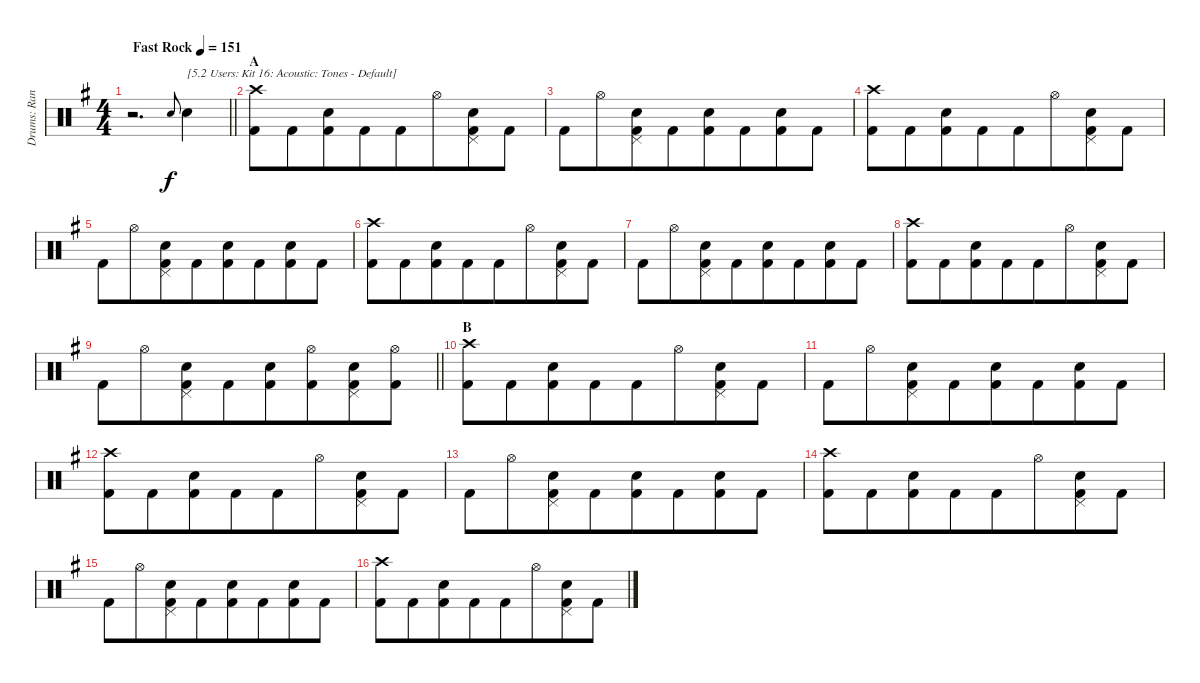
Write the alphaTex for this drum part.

\track ("Drums: Randy" "Drums: Ran") {instrument percussion}
\staff {score}
\articulation defaults
\ts (4 4)
\tempo (151 "Fast Rock")
\clef neutral
\barLineRight lightlight
\ks g
r.2{d dy f} "Electric Snare (hit)".8{gr onbeat} "Snare (hit) 2".4{txt "[5.2 Users: Kit 16: Acoustic: Tones - Default]"} |
\section ("" "A")
("Crash high (hit)" "Kick (hit) 2").8 "Kick (hit) 2".8{beam merge} ("Snare (hit) 2" "Kick (hit) 2").8 "Kick (hit) 2".8{beam merge} "Kick (hit) 2".8 "Hi-Hat (open)".8{beam merge} ("Pedal Hi-Hat (hit)" "Snare (hit) 2" "Kick (hit) 2").8 "Kick (hit) 2".8 |
"Kick (hit) 2".8 "Hi-Hat (open)".8{beam merge} ("Pedal Hi-Hat (hit)" "Snare (hit) 2" "Kick (hit) 2").8 "Kick (hit) 2".8{beam merge} ("Snare (hit) 2" "Kick (hit) 2").8 "Kick (hit) 2".8{beam merge} ("Snare (hit) 2" "Kick (hit) 2").8 "Kick (hit) 2".8 |
("Crash high (hit)" "Kick (hit) 2").8 "Kick (hit) 2".8{beam merge} ("Snare (hit) 2" "Kick (hit) 2").8 "Kick (hit) 2".8{beam merge} "Kick (hit) 2".8 "Hi-Hat (open)".8{beam merge} ("Pedal Hi-Hat (hit)" "Snare (hit) 2" "Kick (hit) 2").8 "Kick (hit) 2".8 |
"Kick (hit) 2".8 "Hi-Hat (open)".8{beam merge} ("Pedal Hi-Hat (hit)" "Snare (hit) 2" "Kick (hit) 2").8 "Kick (hit) 2".8{beam merge} ("Snare (hit) 2" "Kick (hit) 2").8 "Kick (hit) 2".8{beam merge} ("Snare (hit) 2" "Kick (hit) 2").8 "Kick (hit) 2".8 |
("Crash high (hit)" "Kick (hit) 2").8 "Kick (hit) 2".8{beam merge} ("Snare (hit) 2" "Kick (hit) 2").8 "Kick (hit) 2".8{beam merge} "Kick (hit) 2".8 "Hi-Hat (open)".8{beam merge} ("Pedal Hi-Hat (hit)" "Snare (hit) 2" "Kick (hit) 2").8 "Kick (hit) 2".8 |
"Kick (hit) 2".8 "Hi-Hat (open)".8{beam merge} ("Pedal Hi-Hat (hit)" "Snare (hit) 2" "Kick (hit) 2").8 "Kick (hit) 2".8{beam merge} ("Snare (hit) 2" "Kick (hit) 2").8 "Kick (hit) 2".8{beam merge} ("Snare (hit) 2" "Kick (hit) 2").8 "Kick (hit) 2".8 |
("Crash high (hit)" "Kick (hit) 2").8 "Kick (hit) 2".8{beam merge} ("Snare (hit) 2" "Kick (hit) 2").8 "Kick (hit) 2".8{beam merge} "Kick (hit) 2".8 "Hi-Hat (open)".8{beam merge} ("Pedal Hi-Hat (hit)" "Snare (hit) 2" "Kick (hit) 2").8 "Kick (hit) 2".8 |
\barLineRight lightlight "Kick (hit) 2".8 "Hi-Hat (open)".8{beam merge}
("Pedal Hi-Hat (hit)" "Snare (hit) 2" "Kick (hit) 2").8 "Kick (hit) 2".8{beam merge} ("Snare (hit) 2" "Kick (hit) 2").8 ("Hi-Hat (open)" "Kick (hit) 2").8{beam merge} ("Pedal Hi-Hat (hit)" "Snare (hit) 2" "Kick (hit) 2").8 ("Hi-Hat (open)" "Kick (hit) 2").8 |
\section ("" "B")
("Crash high (hit)" "Kick (hit) 2").8 "Kick (hit) 2".8{beam merge} ("Snare (hit) 2" "Kick (hit) 2").8 "Kick (hit) 2".8{beam merge} "Kick (hit) 2".8 "Hi-Hat (open)".8{beam merge} ("Pedal Hi-Hat (hit)" "Snare (hit) 2" "Kick (hit) 2").8 "Kick (hit) 2".8 |
"Kick (hit) 2".8 "Hi-Hat (open)".8{beam merge} ("Pedal Hi-Hat (hit)" "Snare (hit) 2" "Kick (hit) 2").8 "Kick (hit) 2".8{beam merge} ("Snare (hit) 2" "Kick (hit) 2").8 "Kick (hit) 2".8{beam merge} ("Snare (hit) 2" "Kick (hit) 2").8 "Kick (hit) 2".8 |
("Crash high (hit)" "Kick (hit) 2").8 "Kick (hit) 2".8{beam merge} ("Snare (hit) 2" "Kick (hit) 2").8 "Kick (hit) 2".8{beam merge} "Kick (hit) 2".8 "Hi-Hat (open)".8{beam merge} ("Pedal Hi-Hat (hit)" "Snare (hit) 2" "Kick (hit) 2").8 "Kick (hit) 2".8 |
"Kick (hit) 2".8 "Hi-Hat (open)".8{beam merge} ("Pedal Hi-Hat (hit)" "Snare (hit) 2" "Kick (hit) 2").8 "Kick (hit) 2".8{beam merge} ("Snare (hit) 2" "Kick (hit) 2").8 "Kick (hit) 2".8{beam merge} ("Snare (hit) 2" "Kick (hit) 2").8 "Kick (hit) 2".8 |
("Crash high (hit)" "Kick (hit) 2").8 "Kick (hit) 2".8{beam merge} ("Snare (hit) 2" "Kick (hit) 2").8 "Kick (hit) 2".8{beam merge} "Kick (hit) 2".8 "Hi-Hat (open)".8{beam merge} ("Pedal Hi-Hat (hit)" "Snare (hit) 2" "Kick (hit) 2").8 "Kick (hit) 2".8 |
"Kick (hit) 2".8 "Hi-Hat (open)".8{beam merge} ("Pedal Hi-Hat (hit)" "Snare (hit) 2" "Kick (hit) 2").8 "Kick (hit) 2".8{beam merge} ("Snare (hit) 2" "Kick (hit) 2").8 "Kick (hit) 2".8{beam merge} ("Snare (hit) 2" "Kick (hit) 2").8 "Kick (hit) 2".8 |
("Crash high (hit)" "Kick (hit) 2").8 "Kick (hit) 2".8{beam merge} ("Snare (hit) 2" "Kick (hit) 2").8 "Kick (hit) 2".8{beam merge} "Kick (hit) 2".8 "Hi-Hat (open)".8{beam merge} ("Pedal Hi-Hat (hit)" "Snare (hit) 2" "Kick (hit) 2").8 "Kick (hit) 2".8
